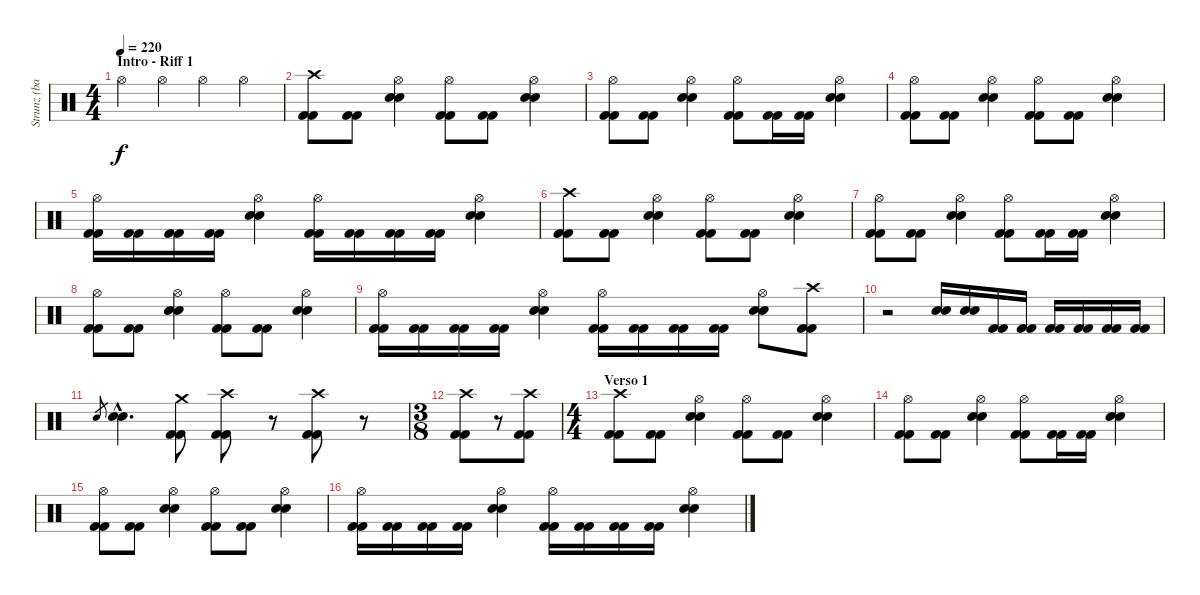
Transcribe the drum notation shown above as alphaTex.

\track ("Strunz (bateria)" "Strunz (ba") {instrument percussion}
\staff {score}
\articulation defaults
\ts (4 4)
\section ("" "Intro - Riff 1")
\tempo 220
\clef neutral
\ks c "Hi-Hat (open)".4{dy f} "Hi-Hat (open)".4 "Hi-Hat (open)".4 "Hi-Hat (open)".4
|
("Crash high (hit)" "Kick (hit) 2" "Kick (hit) 2").8 ("Kick (hit) 2" "Kick (hit) 2").8 ("Hi-Hat (open)" "Snare (hit) 2" "Snare (hit) 2").4 ("Hi-Hat (open)" "Kick (hit) 2" "Kick (hit) 2").8 ("Kick (hit) 2" "Kick (hit) 2").8 ("Hi-Hat (open)" "Snare (hit) 2" "Snare (hit) 2").4 |
("Hi-Hat (open)" "Kick (hit) 2" "Kick (hit) 2").8 ("Kick (hit) 2" "Kick (hit) 2").8 ("Hi-Hat (open)" "Snare (hit) 2" "Snare (hit) 2").4 ("Hi-Hat (open)" "Kick (hit) 2" "Kick (hit) 2").8 ("Kick (hit) 2" "Kick (hit) 2").16 ("Kick (hit) 2" "Kick (hit) 2").16 ("Hi-Hat (open)" "Snare (hit) 2" "Snare (hit) 2").4 |
("Hi-Hat (open)" "Kick (hit) 2" "Kick (hit) 2").8 ("Kick (hit) 2" "Kick (hit) 2").8 ("Hi-Hat (open)" "Snare (hit) 2" "Snare (hit) 2").4 ("Hi-Hat (open)" "Kick (hit) 2" "Kick (hit) 2").8 ("Kick (hit) 2" "Kick (hit) 2").8 ("Hi-Hat (open)" "Snare (hit) 2" "Snare (hit) 2").4 |
("Hi-Hat (open)" "Kick (hit) 2" "Kick (hit) 2").16 ("Kick (hit) 2" "Kick (hit) 2").16 ("Kick (hit) 2" "Kick (hit) 2").16 ("Kick (hit) 2" "Kick (hit) 2").16 ("Hi-Hat (open)" "Snare (hit) 2" "Snare (hit) 2").4 ("Hi-Hat (open)" "Kick (hit) 2" "Kick (hit) 2").16 ("Kick (hit) 2" "Kick (hit) 2").16 ("Kick (hit) 2" "Kick (hit) 2").16 ("Kick (hit) 2" "Kick (hit) 2").16 ("Hi-Hat (open)" "Snare (hit) 2" "Snare (hit) 2").4 |
("Crash high (hit)" "Kick (hit) 2" "Kick (hit) 2").8 ("Kick (hit) 2" "Kick (hit) 2").8 ("Hi-Hat (open)" "Snare (hit) 2" "Snare (hit) 2").4 ("Hi-Hat (open)" "Kick (hit) 2" "Kick (hit) 2").8 ("Kick (hit) 2" "Kick (hit) 2").8 ("Hi-Hat (open)" "Snare (hit) 2" "Snare (hit) 2").4 |
("Hi-Hat (open)" "Kick (hit) 2" "Kick (hit) 2").8 ("Kick (hit) 2" "Kick (hit) 2").8 ("Hi-Hat (open)" "Snare (hit) 2" "Snare (hit) 2").4 ("Hi-Hat (open)" "Kick (hit) 2" "Kick (hit) 2").8 ("Kick (hit) 2" "Kick (hit) 2").16 ("Kick (hit) 2" "Kick (hit) 2").16 ("Hi-Hat (open)" "Snare (hit) 2" "Snare (hit) 2").4 |
("Hi-Hat (open)" "Kick (hit) 2" "Kick (hit) 2").8 ("Kick (hit) 2" "Kick (hit) 2").8 ("Hi-Hat (open)" "Snare (hit) 2" "Snare (hit) 2").4 ("Hi-Hat (open)" "Kick (hit) 2" "Kick (hit) 2").8 ("Kick (hit) 2" "Kick (hit) 2").8 ("Hi-Hat (open)" "Snare (hit) 2" "Snare (hit) 2").4 |
("Hi-Hat (open)" "Kick (hit) 2" "Kick (hit) 2").16 ("Kick (hit) 2" "Kick (hit) 2").16 ("Kick (hit) 2" "Kick (hit) 2").16 ("Kick (hit) 2" "Kick (hit) 2").16 ("Hi-Hat (open)" "Snare (hit) 2" "Snare (hit) 2").4 ("Hi-Hat (open)" "Kick (hit) 2" "Kick (hit) 2").16 ("Kick (hit) 2" "Kick (hit) 2").16 ("Kick (hit) 2" "Kick (hit) 2").16 ("Kick (hit) 2" "Kick (hit) 2").16 ("Hi-Hat (open)" "Snare (hit) 2" "Snare (hit) 2").8 ("Crash high (hit)" "Kick (hit) 2" "Kick (hit) 2").8 |
r.2 ("Snare (hit) 2" "Snare (hit) 2").16 ("Snare (hit) 2" "Snare (hit) 2").16 ("Kick (hit) 2" "Kick (hit) 2").16 ("Kick (hit) 2" "Kick (hit) 2").16 ("Kick (hit) 2" "Kick (hit) 2").16 ("Kick (hit) 2" "Kick (hit) 2").16 ("Kick (hit) 2" "Kick (hit) 2").16 ("Kick (hit) 2" "Kick (hit) 2").16 |
"Snare (hit) 2".8{gr} ("Snare (hit) 2"{hac} "Snare (hit) 2"{hac}).4{d} ("Crash medium (hit)" "Kick (hit) 2" "Kick (hit) 2").8 ("Crash high (hit)" "Kick (hit) 2" "Kick (hit) 2").8 r.8 ("Crash high (hit)" "Kick (hit) 2" "Kick (hit) 2").8 r.8 |
\ts (3 8)
("Crash high (hit)" "Kick (hit) 2" "Kick (hit) 2").8 r.8 ("Crash high (hit)" "Kick (hit) 2" "Kick (hit) 2").8 |
\ts (4 4)
\section ("" "Verso 1")
("Crash high (hit)" "Kick (hit) 2" "Kick (hit) 2").8 ("Kick (hit) 2" "Kick (hit) 2").8 ("Hi-Hat (open)" "Snare (hit) 2" "Snare (hit) 2").4 ("Hi-Hat (open)" "Kick (hit) 2" "Kick (hit) 2").8 ("Kick (hit) 2" "Kick (hit) 2").8 ("Hi-Hat (open)" "Snare (hit) 2" "Snare (hit) 2").4 |
("Hi-Hat (open)" "Kick (hit) 2" "Kick (hit) 2").8 ("Kick (hit) 2" "Kick (hit) 2").8 ("Hi-Hat (open)" "Snare (hit) 2" "Snare (hit) 2").4 ("Hi-Hat (open)" "Kick (hit) 2" "Kick (hit) 2").8 ("Kick (hit) 2" "Kick (hit) 2").16 ("Kick (hit) 2" "Kick (hit) 2").16 ("Hi-Hat (open)" "Snare (hit) 2" "Snare (hit) 2").4 |
("Hi-Hat (open)" "Kick (hit) 2" "Kick (hit) 2").8 ("Kick (hit) 2" "Kick (hit) 2").8 ("Hi-Hat (open)" "Snare (hit) 2" "Snare (hit) 2").4 ("Hi-Hat (open)" "Kick (hit) 2" "Kick (hit) 2").8 ("Kick (hit) 2" "Kick (hit) 2").8 ("Hi-Hat (open)" "Snare (hit) 2" "Snare (hit) 2").4 |
("Hi-Hat (open)" "Kick (hit) 2" "Kick (hit) 2").16 ("Kick (hit) 2" "Kick (hit) 2").16 ("Kick (hit) 2" "Kick (hit) 2").16 ("Kick (hit) 2" "Kick (hit) 2").16 ("Hi-Hat (open)" "Snare (hit) 2" "Snare (hit) 2").4 ("Hi-Hat (open)" "Kick (hit) 2" "Kick (hit) 2").16 ("Kick (hit) 2" "Kick (hit) 2").16 ("Kick (hit) 2" "Kick (hit) 2").16 ("Kick (hit) 2" "Kick (hit) 2").16 ("Hi-Hat (open)" "Snare (hit) 2" "Snare (hit) 2").4
